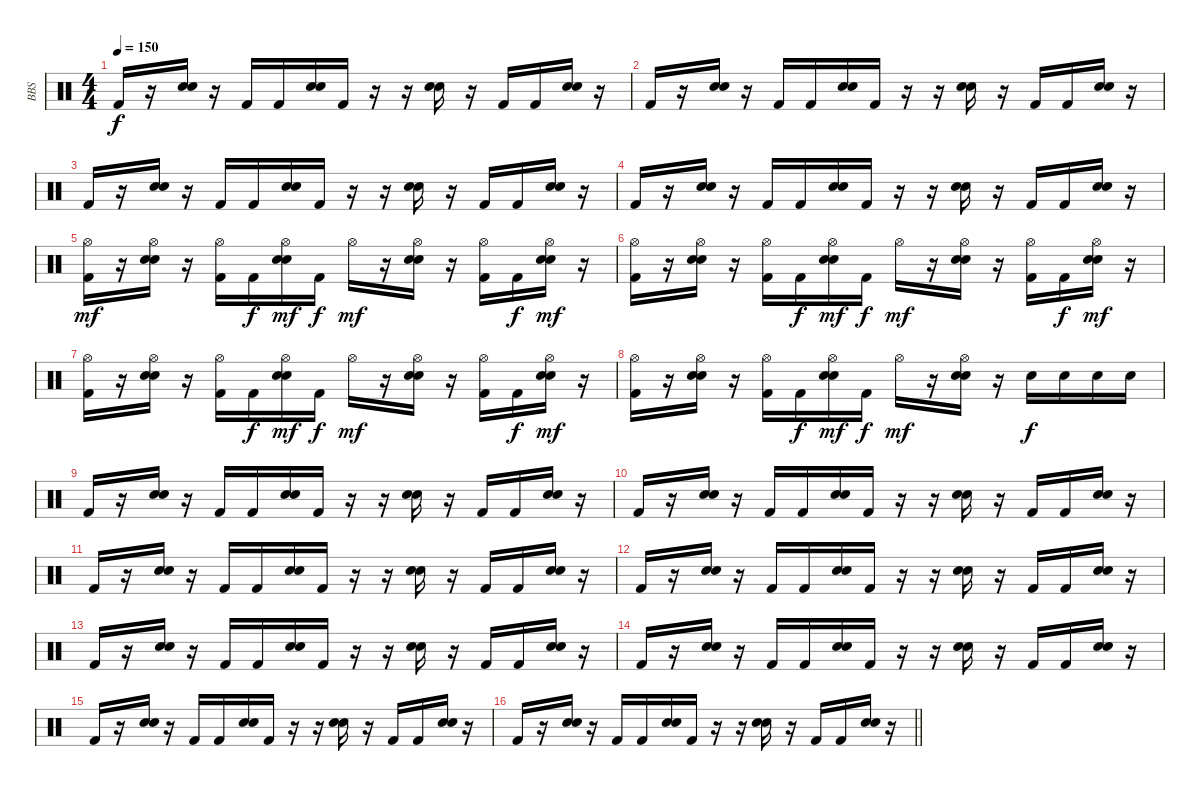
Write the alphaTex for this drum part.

\track ("BBS" "BBS") {instrument percussion}
\staff {score}
\articulation defaults
\ts (4 4)
\tempo 150
\clef neutral
\ks c "Kick (hit) 2".16{dy f}
r.16 ("Electric Snare (hit)" "Electric Snare (hit)").16 r.16 "Kick (hit) 2".16 "Kick (hit) 2".16 ("Electric Snare (hit)" "Electric Snare (hit)").16 "Kick (hit) 2".16 r.16 r.16 ("Electric Snare (hit)" "Electric Snare (hit)").16 r.16 "Kick (hit) 2".16 "Kick (hit) 2".16 ("Electric Snare (hit)" "Electric Snare (hit)").16 r.16 |
"Kick (hit) 2".16 r.16 ("Electric Snare (hit)" "Electric Snare (hit)").16 r.16 "Kick (hit) 2".16 "Kick (hit) 2".16 ("Electric Snare (hit)" "Electric Snare (hit)").16 "Kick (hit) 2".16 r.16 r.16 ("Electric Snare (hit)" "Electric Snare (hit)").16 r.16 "Kick (hit) 2".16 "Kick (hit) 2".16 ("Electric Snare (hit)" "Electric Snare (hit)").16 r.16 |
"Kick (hit) 2".16 r.16 ("Electric Snare (hit)" "Electric Snare (hit)").16 r.16 "Kick (hit) 2".16 "Kick (hit) 2".16 ("Electric Snare (hit)" "Electric Snare (hit)").16 "Kick (hit) 2".16 r.16 r.16 ("Electric Snare (hit)" "Electric Snare (hit)").16 r.16 "Kick (hit) 2".16 "Kick (hit) 2".16 ("Electric Snare (hit)" "Electric Snare (hit)").16 r.16 |
"Kick (hit) 2".16 r.16 ("Electric Snare (hit)" "Electric Snare (hit)").16 r.16 "Kick (hit) 2".16 "Kick (hit) 2".16 ("Electric Snare (hit)" "Electric Snare (hit)").16 "Kick (hit) 2".16 r.16 r.16 ("Electric Snare (hit)" "Electric Snare (hit)").16 r.16 "Kick (hit) 2".16 "Kick (hit) 2".16 ("Electric Snare (hit)" "Electric Snare (hit)").16 r.16 |
("Kick (hit) 2" "Hi-Hat (open)").16{dy mf} r.16 ("Electric Snare (hit)" "Electric Snare (hit)" "Hi-Hat (open)").16 r.16 ("Kick (hit) 2" "Hi-Hat (open)").16 "Kick (hit) 2".16{dy f} ("Electric Snare (hit)" "Electric Snare (hit)" "Hi-Hat (open)").16{dy mf} "Kick (hit) 2".16{dy f} "Hi-Hat (open)".16{dy mf} r.16 ("Electric Snare (hit)" "Electric Snare (hit)" "Hi-Hat (open)").16 r.16 ("Kick (hit) 2" "Hi-Hat (open)").16 "Kick (hit) 2".16{dy f} ("Electric Snare (hit)" "Electric Snare (hit)" "Hi-Hat (open)").16{dy mf} r.16 |
("Kick (hit) 2" "Hi-Hat (open)").16 r.16 ("Electric Snare (hit)" "Electric Snare (hit)" "Hi-Hat (open)").16 r.16 ("Kick (hit) 2" "Hi-Hat (open)").16 "Kick (hit) 2".16{dy f} ("Electric Snare (hit)" "Electric Snare (hit)" "Hi-Hat (open)").16{dy mf} "Kick (hit) 2".16{dy f} "Hi-Hat (open)".16{dy mf} r.16 ("Electric Snare (hit)" "Electric Snare (hit)" "Hi-Hat (open)").16 r.16 ("Kick (hit) 2" "Hi-Hat (open)").16 "Kick (hit) 2".16{dy f} ("Electric Snare (hit)" "Electric Snare (hit)" "Hi-Hat (open)").16{dy mf} r.16 |
("Kick (hit) 2" "Hi-Hat (open)").16 r.16 ("Electric Snare (hit)" "Electric Snare (hit)" "Hi-Hat (open)").16 r.16 ("Kick (hit) 2" "Hi-Hat (open)").16 "Kick (hit) 2".16{dy f} ("Electric Snare (hit)" "Electric Snare (hit)" "Hi-Hat (open)").16{dy mf} "Kick (hit) 2".16{dy f} "Hi-Hat (open)".16{dy mf} r.16 ("Electric Snare (hit)" "Electric Snare (hit)" "Hi-Hat (open)").16 r.16 ("Kick (hit) 2" "Hi-Hat (open)").16 "Kick (hit) 2".16{dy f} ("Electric Snare (hit)" "Electric Snare (hit)" "Hi-Hat (open)").16{dy mf} r.16 |
("Kick (hit) 2" "Hi-Hat (open)").16 r.16 ("Electric Snare (hit)" "Electric Snare (hit)" "Hi-Hat (open)").16 r.16 ("Kick (hit) 2" "Hi-Hat (open)").16 "Kick (hit) 2".16{dy f} ("Electric Snare (hit)" "Electric Snare (hit)" "Hi-Hat (open)").16{dy mf} "Kick (hit) 2".16{dy f} "Hi-Hat (open)".16{dy mf} r.16 ("Electric Snare (hit)" "Electric Snare (hit)" "Hi-Hat (open)").16 r.16 "Electric Snare (hit)".16{dy f} "Electric Snare (hit)".16 "Electric Snare (hit)".16 "Electric Snare (hit)".16 |
"Kick (hit) 2".16 r.16 ("Electric Snare (hit)" "Electric Snare (hit)").16 r.16 "Kick (hit) 2".16 "Kick (hit) 2".16 ("Electric Snare (hit)" "Electric Snare (hit)").16 "Kick (hit) 2".16 r.16 r.16 ("Electric Snare (hit)" "Electric Snare (hit)").16 r.16 "Kick (hit) 2".16 "Kick (hit) 2".16 ("Electric Snare (hit)" "Electric Snare (hit)").16 r.16 |
"Kick (hit) 2".16 r.16 ("Electric Snare (hit)" "Electric Snare (hit)").16 r.16 "Kick (hit) 2".16 "Kick (hit) 2".16 ("Electric Snare (hit)" "Electric Snare (hit)").16 "Kick (hit) 2".16 r.16 r.16 ("Electric Snare (hit)" "Electric Snare (hit)").16 r.16 "Kick (hit) 2".16 "Kick (hit) 2".16 ("Electric Snare (hit)" "Electric Snare (hit)").16 r.16 |
"Kick (hit) 2".16 r.16 ("Electric Snare (hit)" "Electric Snare (hit)").16 r.16 "Kick (hit) 2".16 "Kick (hit) 2".16 ("Electric Snare (hit)" "Electric Snare (hit)").16 "Kick (hit) 2".16 r.16 r.16 ("Electric Snare (hit)" "Electric Snare (hit)").16 r.16 "Kick (hit) 2".16 "Kick (hit) 2".16 ("Electric Snare (hit)" "Electric Snare (hit)").16 r.16 |
"Kick (hit) 2".16 r.16 ("Electric Snare (hit)" "Electric Snare (hit)").16 r.16 "Kick (hit) 2".16 "Kick (hit) 2".16 ("Electric Snare (hit)" "Electric Snare (hit)").16 "Kick (hit) 2".16 r.16 r.16 ("Electric Snare (hit)" "Electric Snare (hit)").16 r.16 "Kick (hit) 2".16 "Kick (hit) 2".16 ("Electric Snare (hit)" "Electric Snare (hit)").16 r.16 |
"Kick (hit) 2".16 r.16 ("Electric Snare (hit)" "Electric Snare (hit)").16 r.16 "Kick (hit) 2".16 "Kick (hit) 2".16 ("Electric Snare (hit)" "Electric Snare (hit)").16 "Kick (hit) 2".16 r.16 r.16 ("Electric Snare (hit)" "Electric Snare (hit)").16 r.16 "Kick (hit) 2".16 "Kick (hit) 2".16 ("Electric Snare (hit)" "Electric Snare (hit)").16 r.16 |
"Kick (hit) 2".16 r.16 ("Electric Snare (hit)" "Electric Snare (hit)").16 r.16 "Kick (hit) 2".16 "Kick (hit) 2".16 ("Electric Snare (hit)" "Electric Snare (hit)").16 "Kick (hit) 2".16 r.16 r.16 ("Electric Snare (hit)" "Electric Snare (hit)").16 r.16 "Kick (hit) 2".16 "Kick (hit) 2".16 ("Electric Snare (hit)" "Electric Snare (hit)").16 r.16 |
"Kick (hit) 2".16 r.16 ("Electric Snare (hit)" "Electric Snare (hit)").16 r.16 "Kick (hit) 2".16 "Kick (hit) 2".16 ("Electric Snare (hit)" "Electric Snare (hit)").16 "Kick (hit) 2".16 r.16 r.16 ("Electric Snare (hit)" "Electric Snare (hit)").16 r.16 "Kick (hit) 2".16 "Kick (hit) 2".16 ("Electric Snare (hit)" "Electric Snare (hit)").16 r.16 |
\barLineRight lightlight "Kick (hit) 2".16
r.16 ("Electric Snare (hit)" "Electric Snare (hit)").16 r.16 "Kick (hit) 2".16 "Kick (hit) 2".16 ("Electric Snare (hit)" "Electric Snare (hit)").16 "Kick (hit) 2".16 r.16 r.16 ("Electric Snare (hit)" "Electric Snare (hit)").16 r.16 "Kick (hit) 2".16 "Kick (hit) 2".16 ("Electric Snare (hit)" "Electric Snare (hit)").16 r.16
